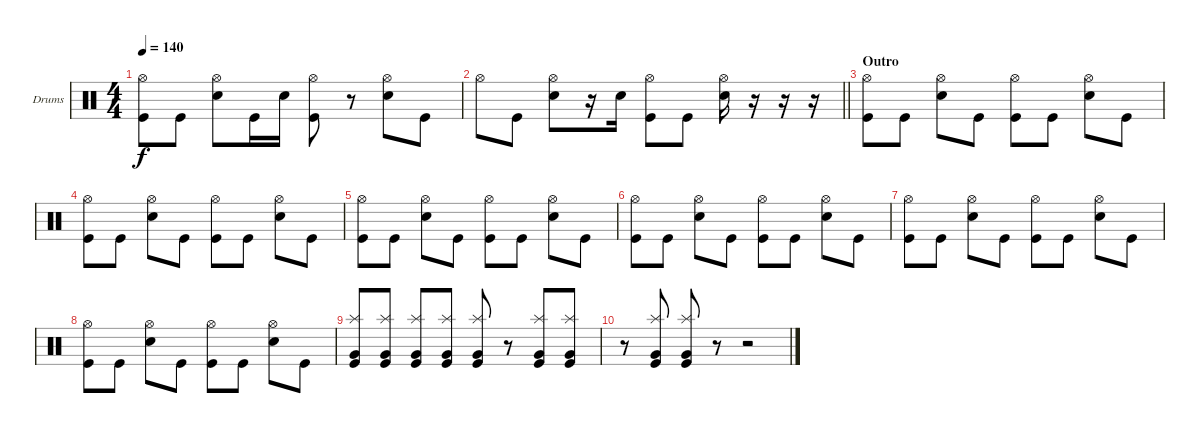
\bracketExtendMode groupsimilarinstruments
\firstSystemTrackNameOrientation horizontal
\otherSystemsTrackNameOrientation horizontal
\track ("Dave McClain" "Drums") {instrument percussion}
\staff {score}
\articulation defaults
\ts (4 4)
\tempo 140
\clef neutral
\ks c
("Hi-Hat (open)" "Kick (hit)").8{dy f} "Kick (hit)".8 ("Hi-Hat (open)" "Snare (hit) 2").8 "Kick (hit)".16 "Snare (hit) 2".16 ("Hi-Hat (open)" "Kick (hit)").8 r.8 ("Hi-Hat (open)" "Snare (hit) 2").8 "Kick (hit)".8 |
\barLineRight lightlight "Hi-Hat (open)".8 "Kick (hit)".8
("Hi-Hat (open)" "Snare (hit) 2").8 r.16 "Snare (hit) 2".16 ("Hi-Hat (open)" "Kick (hit)").8 "Kick (hit)".8 ("Hi-Hat (open)" "Snare (hit) 2").16 r.16 r.16 r.16 |
\section ("" "Outro")
("Hi-Hat (open)" "Kick (hit)").8 "Kick (hit)".8 ("Hi-Hat (open)" "Snare (hit) 2").8 "Kick (hit)".8 ("Hi-Hat (open)" "Kick (hit)").8 "Kick (hit)".8 ("Hi-Hat (open)" "Snare (hit) 2").8 "Kick (hit)".8 |
("Hi-Hat (open)" "Kick (hit)").8 "Kick (hit)".8 ("Hi-Hat (open)" "Snare (hit) 2").8 "Kick (hit)".8 ("Hi-Hat (open)" "Kick (hit)").8 "Kick (hit)".8 ("Hi-Hat (open)" "Snare (hit) 2").8 "Kick (hit)".8 |
("Hi-Hat (open)" "Kick (hit)").8 "Kick (hit)".8 ("Hi-Hat (open)" "Snare (hit) 2").8 "Kick (hit)".8 ("Hi-Hat (open)" "Kick (hit)").8 "Kick (hit)".8 ("Hi-Hat (open)" "Snare (hit) 2").8 "Kick (hit)".8 |
("Hi-Hat (open)" "Kick (hit)").8 "Kick (hit)".8 ("Hi-Hat (open)" "Snare (hit) 2").8 "Kick (hit)".8 ("Hi-Hat (open)" "Kick (hit)").8 "Kick (hit)".8 ("Hi-Hat (open)" "Snare (hit) 2").8 "Kick (hit)".8 |
("Hi-Hat (open)" "Kick (hit)").8 "Kick (hit)".8 ("Hi-Hat (open)" "Snare (hit) 2").8 "Kick (hit)".8 ("Hi-Hat (open)" "Kick (hit)").8 "Kick (hit)".8 ("Hi-Hat (open)" "Snare (hit) 2").8 "Kick (hit)".8 |
("Hi-Hat (open)" "Kick (hit)").8 "Kick (hit)".8 ("Hi-Hat (open)" "Snare (hit) 2").8 "Kick (hit)".8 ("Hi-Hat (open)" "Kick (hit)").8 "Kick (hit)".8 ("Hi-Hat (open)" "Snare (hit) 2").8 "Kick (hit)".8 |
("Splash (hit)" "Very Low Tom (hit)" "Kick (hit)").8 ("Splash (hit)" "Very Low Tom (hit)" "Kick (hit)").8 ("Splash (hit)" "Very Low Tom (hit)" "Kick (hit)").8 ("Splash (hit)" "Very Low Tom (hit)" "Kick (hit)").8 ("Splash (hit)" "Very Low Tom (hit)" "Kick (hit)").8 r.8 ("Splash (hit)" "Very Low Tom (hit)" "Kick (hit)").8 ("Splash (hit)" "Very Low Tom (hit)" "Kick (hit)").8 |
r.8 ("Splash (hit)" "Very Low Tom (hit)" "Kick (hit)").8 ("Splash (hit)" "Very Low Tom (hit)" "Kick (hit)").8 r.8 r.2
